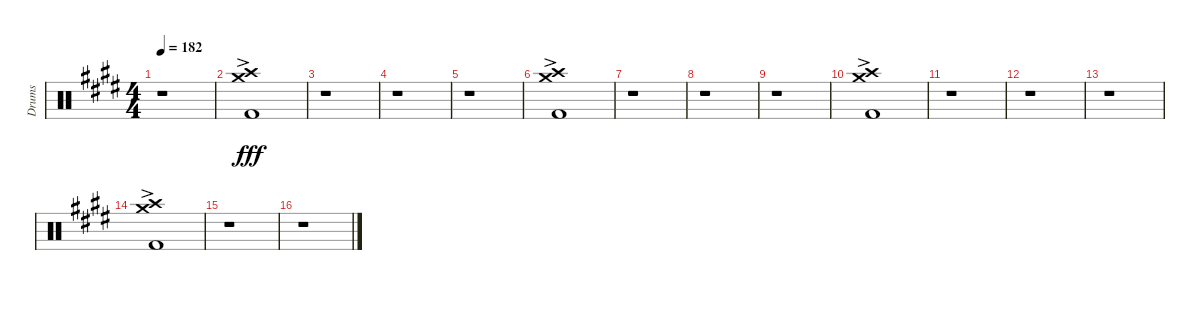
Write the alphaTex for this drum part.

\track ("Drums" "Drums") {instrument percussion}
\staff {score}
\articulation defaults
\ts (4 4)
\tempo 182
\clef neutral
\ks c#minor
r.1{dy fff} |
("Crash high (hit)" "Crash medium (hit)" "Kick (hit) 2"{ac}).1 |
r.1 |
r.1 |
r.1 |
("Crash high (hit)" "Crash medium (hit)" "Kick (hit) 2"{ac}).1 |
r.1 |
r.1 |
r.1 |
("Crash high (hit)" "Crash medium (hit)" "Kick (hit) 2"{ac}).1 |
r.1 |
r.1 |
r.1 |
("Crash high (hit)" "Crash medium (hit)" "Kick (hit) 2"{ac}).1 |
r.1 |
r.1
